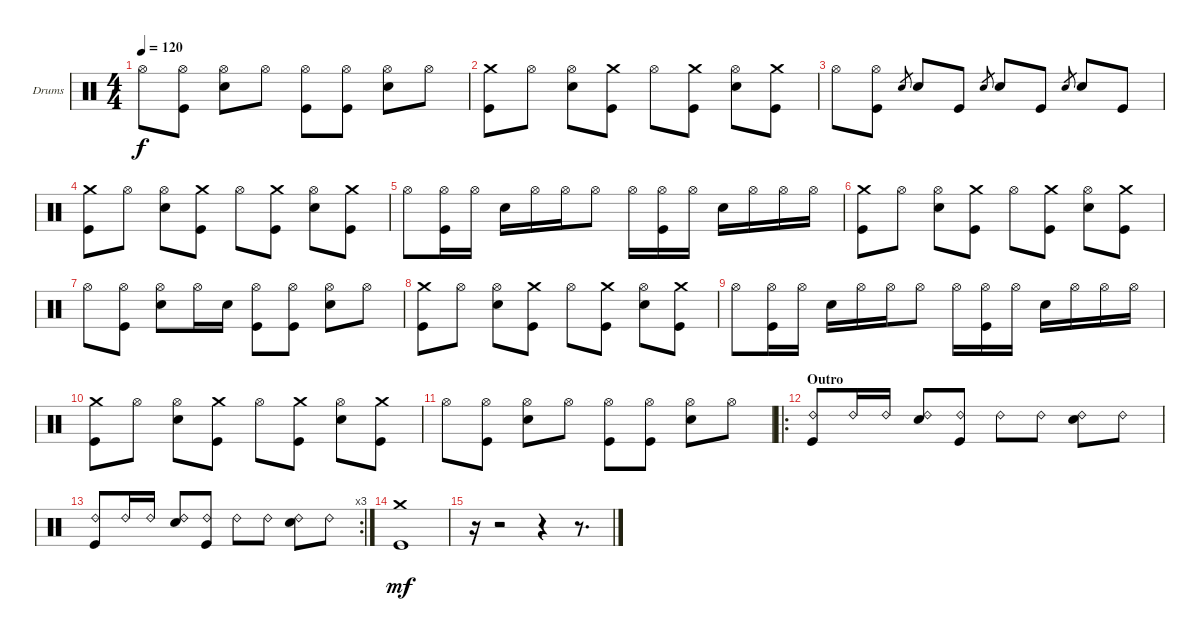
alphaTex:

\bracketExtendMode groupsimilarinstruments
\firstSystemTrackNameOrientation horizontal
\otherSystemsTrackNameOrientation horizontal
\track ("Fabrizio" "Drums") {instrument percussion}
\staff {score}
\articulation defaults
\ts (4 4)
\tempo 120
\clef neutral
\ks c "Hi-Hat (open)".8{dy f}
("Hi-Hat (open)" "Kick (hit)").8 ("Hi-Hat (open)" "Snare (hit) 2").8 "Hi-Hat (open)".8 ("Hi-Hat (open)" "Kick (hit)").8 ("Hi-Hat (open)" "Kick (hit)").8 ("Hi-Hat (open)" "Snare (hit) 2").8 "Hi-Hat (open)".8 |
("Crash medium (hit)" "Kick (hit)").8 "Hi-Hat (open)".8 ("Hi-Hat (open)" "Snare (hit) 2").8 ("Crash medium (hit)" "Kick (hit)").8 "Hi-Hat (open)".8 ("Crash medium (hit)" "Kick (hit)").8 ("Hi-Hat (open)" "Snare (hit) 2").8 ("Crash medium (hit)" "Kick (hit)").8 |
"Hi-Hat (open)".8 ("Hi-Hat (open)" "Kick (hit)").8 "Snare (hit) 2".8{gr} "Snare (hit) 2".8 "Kick (hit)".8 "Snare (hit) 2".8{gr} "Snare (hit) 2".8 "Kick (hit)".8 "Snare (hit) 2".8{gr} "Snare (hit) 2".8 "Kick (hit)".8 |
("Crash medium (hit)" "Kick (hit)").8 "Hi-Hat (open)".8 ("Hi-Hat (open)" "Snare (hit) 2").8 ("Crash medium (hit)" "Kick (hit)").8 "Hi-Hat (open)".8 ("Crash medium (hit)" "Kick (hit)").8 ("Hi-Hat (open)" "Snare (hit) 2").8 ("Crash medium (hit)" "Kick (hit)").8 |
"Hi-Hat (open)".8 ("Hi-Hat (open)" "Kick (hit)").16 "Hi-Hat (open)".16 "Snare (hit) 2".16 "Hi-Hat (open)".16 "Hi-Hat (open)".16 "Hi-Hat (open)".8 "Hi-Hat (open)".16 ("Hi-Hat (open)" "Kick (hit)").16 "Hi-Hat (open)".16 "Snare (hit) 2".16 "Hi-Hat (open)".16 "Hi-Hat (open)".16 "Hi-Hat (open)".16 |
("Crash medium (hit)" "Kick (hit)").8 "Hi-Hat (open)".8 ("Hi-Hat (open)" "Snare (hit) 2").8 ("Crash medium (hit)" "Kick (hit)").8 "Hi-Hat (open)".8 ("Crash medium (hit)" "Kick (hit)").8 ("Hi-Hat (open)" "Snare (hit) 2").8 ("Crash medium (hit)" "Kick (hit)").8 |
"Hi-Hat (open)".8 ("Hi-Hat (open)" "Kick (hit)").8 ("Hi-Hat (open)" "Snare (hit) 2").8 "Hi-Hat (open)".16 "Snare (hit) 2".16 ("Hi-Hat (open)" "Kick (hit)").8 ("Hi-Hat (open)" "Kick (hit)").8 ("Hi-Hat (open)" "Snare (hit) 2").8 "Hi-Hat (open)".8 |
("Crash medium (hit)" "Kick (hit)").8 "Hi-Hat (open)".8 ("Hi-Hat (open)" "Snare (hit) 2").8 ("Crash medium (hit)" "Kick (hit)").8 "Hi-Hat (open)".8 ("Crash medium (hit)" "Kick (hit)").8 ("Hi-Hat (open)" "Snare (hit) 2").8 ("Crash medium (hit)" "Kick (hit)").8 |
"Hi-Hat (open)".8 ("Hi-Hat (open)" "Kick (hit)").16 "Hi-Hat (open)".16 "Snare (hit) 2".16 "Hi-Hat (open)".16 "Hi-Hat (open)".16 "Hi-Hat (open)".8 "Hi-Hat (open)".16 ("Hi-Hat (open)" "Kick (hit)").16 "Hi-Hat (open)".16 "Snare (hit) 2".16 "Hi-Hat (open)".16 "Hi-Hat (open)".16 "Hi-Hat (open)".16 |
("Crash medium (hit)" "Kick (hit)").8 "Hi-Hat (open)".8 ("Hi-Hat (open)" "Snare (hit) 2").8 ("Crash medium (hit)" "Kick (hit)").8 "Hi-Hat (open)".8 ("Crash medium (hit)" "Kick (hit)").8 ("Hi-Hat (open)" "Snare (hit) 2").8 ("Crash medium (hit)" "Kick (hit)").8 |
"Hi-Hat (open)".8 ("Hi-Hat (open)" "Kick (hit)").8 ("Hi-Hat (open)" "Snare (hit) 2").8 "Hi-Hat (open)".8 ("Hi-Hat (open)" "Kick (hit)").8 ("Kick (hit)" "Hi-Hat (open)").8 ("Hi-Hat (open)" "Snare (hit) 2").8 "Hi-Hat (open)".8 |
\ro
\section ("" "Outro")
("Ride (bell) 2" "Kick (hit)").8 "Ride (bell) 2".16 "Ride (bell) 2".16 ("Ride (bell) 2" "Snare (hit) 2").8 ("Ride (bell) 2" "Kick (hit)").8 "Ride (bell) 2".8 "Ride (bell) 2".8 ("Ride (bell) 2" "Snare (hit) 2").8 "Ride (bell) 2".8 |
\rc 3
("Ride (bell) 2" "Kick (hit)").8 "Ride (bell) 2".16 "Ride (bell) 2".16 ("Ride (bell) 2" "Snare (hit) 2").8 ("Ride (bell) 2" "Kick (hit)").8 "Ride (bell) 2".8 "Ride (bell) 2".8 ("Ride (bell) 2" "Snare (hit) 2").8 "Ride (bell) 2".8 |
("Kick (hit)" "Crash medium (hit)").1{dy mf} |
r.16 r.2 r.4 r.8{d}
